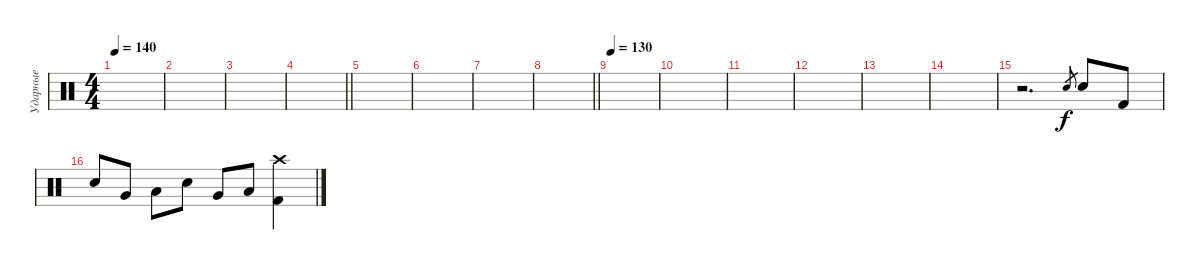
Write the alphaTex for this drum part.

\track ("Ударные" "Ударные") {instrument percussion}
\staff {score}
\articulation defaults
\ts (4 4)
\tempo 140
\clef neutral
\ks c
|
|
|
\barLineRight lightlight
|
|
|
|
\barLineRight lightlight
|
\tempo 130
|
|
|
|
|
|
r.2{d} "Electric Snare (hit)".8{gr} "Electric Snare (hit)".8 "Kick (hit) 2".8 |
"Electric Snare (hit)".8 "Very Low Tom (hit)".8 "Low Floor Tom (hit)".8 "Electric Snare (hit)".8 "Very Low Tom (hit)".8 "Low Floor Tom (hit)".8 ("Kick (hit) 2" "Crash high (hit)").4
